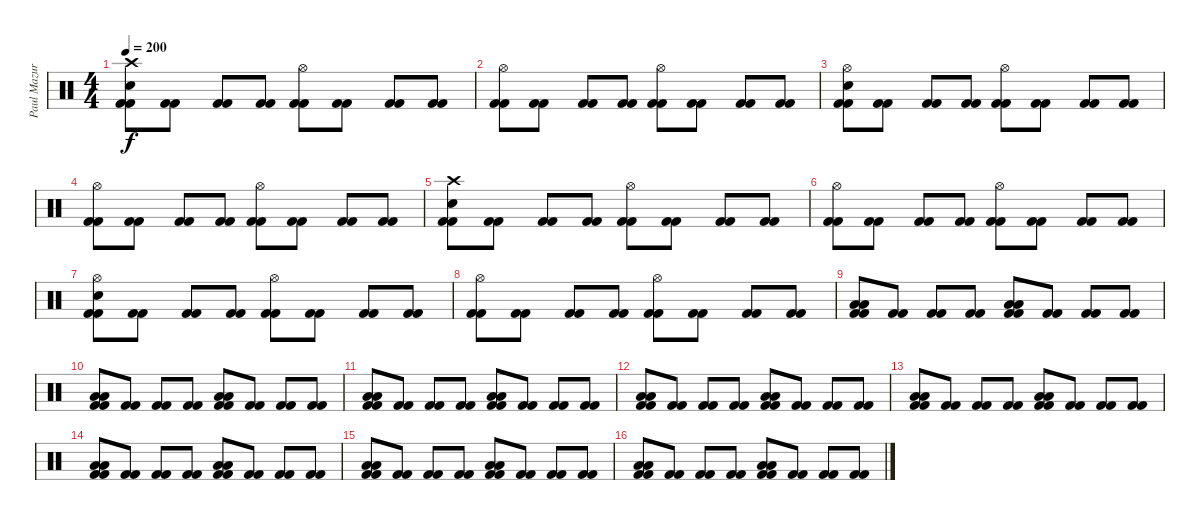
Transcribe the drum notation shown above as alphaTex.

\track ("Paul Mazurkiewicz" "Paul Mazur") {instrument percussion}
\staff {score}
\articulation defaults
\ts (4 4)
\tempo 200
\clef neutral
\ks c
("Crash high (hit)" "Electric Snare (hit)" "Kick (hit) 2" "Kick (hit) 2").8{dy f} ("Kick (hit) 2" "Kick (hit) 2").8 ("Kick (hit) 2" "Kick (hit) 2").8 ("Kick (hit) 2" "Kick (hit) 2").8 ("Hi-Hat (open)" "Kick (hit) 2" "Kick (hit) 2").8 ("Kick (hit) 2" "Kick (hit) 2").8 ("Kick (hit) 2" "Kick (hit) 2").8 ("Kick (hit) 2" "Kick (hit) 2").8 |
("Hi-Hat (open)" "Kick (hit) 2" "Kick (hit) 2").8 ("Kick (hit) 2" "Kick (hit) 2").8 ("Kick (hit) 2" "Kick (hit) 2").8 ("Kick (hit) 2" "Kick (hit) 2").8 ("Hi-Hat (open)" "Kick (hit) 2" "Kick (hit) 2").8 ("Kick (hit) 2" "Kick (hit) 2").8 ("Kick (hit) 2" "Kick (hit) 2").8 ("Kick (hit) 2" "Kick (hit) 2").8 |
("Hi-Hat (open)" "Electric Snare (hit)" "Kick (hit) 2" "Kick (hit) 2").8 ("Kick (hit) 2" "Kick (hit) 2").8 ("Kick (hit) 2" "Kick (hit) 2").8 ("Kick (hit) 2" "Kick (hit) 2").8 ("Hi-Hat (open)" "Kick (hit) 2" "Kick (hit) 2").8 ("Kick (hit) 2" "Kick (hit) 2").8 ("Kick (hit) 2" "Kick (hit) 2").8 ("Kick (hit) 2" "Kick (hit) 2").8 |
("Hi-Hat (open)" "Kick (hit) 2" "Kick (hit) 2").8 ("Kick (hit) 2" "Kick (hit) 2").8 ("Kick (hit) 2" "Kick (hit) 2").8 ("Kick (hit) 2" "Kick (hit) 2").8 ("Hi-Hat (open)" "Kick (hit) 2" "Kick (hit) 2").8 ("Kick (hit) 2" "Kick (hit) 2").8 ("Kick (hit) 2" "Kick (hit) 2").8 ("Kick (hit) 2" "Kick (hit) 2").8 |
("Crash high (hit)" "Electric Snare (hit)" "Kick (hit) 2" "Kick (hit) 2").8 ("Kick (hit) 2" "Kick (hit) 2").8 ("Kick (hit) 2" "Kick (hit) 2").8 ("Kick (hit) 2" "Kick (hit) 2").8 ("Hi-Hat (open)" "Kick (hit) 2" "Kick (hit) 2").8 ("Kick (hit) 2" "Kick (hit) 2").8 ("Kick (hit) 2" "Kick (hit) 2").8 ("Kick (hit) 2" "Kick (hit) 2").8 |
("Hi-Hat (open)" "Kick (hit) 2" "Kick (hit) 2").8 ("Kick (hit) 2" "Kick (hit) 2").8 ("Kick (hit) 2" "Kick (hit) 2").8 ("Kick (hit) 2" "Kick (hit) 2").8 ("Hi-Hat (open)" "Kick (hit) 2" "Kick (hit) 2").8 ("Kick (hit) 2" "Kick (hit) 2").8 ("Kick (hit) 2" "Kick (hit) 2").8 ("Kick (hit) 2" "Kick (hit) 2").8 |
("Hi-Hat (open)" "Electric Snare (hit)" "Kick (hit) 2" "Kick (hit) 2").8 ("Kick (hit) 2" "Kick (hit) 2").8 ("Kick (hit) 2" "Kick (hit) 2").8 ("Kick (hit) 2" "Kick (hit) 2").8 ("Hi-Hat (open)" "Kick (hit) 2" "Kick (hit) 2").8 ("Kick (hit) 2" "Kick (hit) 2").8 ("Kick (hit) 2" "Kick (hit) 2").8 ("Kick (hit) 2" "Kick (hit) 2").8 |
("Hi-Hat (open)" "Kick (hit) 2" "Kick (hit) 2").8 ("Kick (hit) 2" "Kick (hit) 2").8 ("Kick (hit) 2" "Kick (hit) 2").8 ("Kick (hit) 2" "Kick (hit) 2").8 ("Hi-Hat (open)" "Kick (hit) 2" "Kick (hit) 2").8 ("Kick (hit) 2" "Kick (hit) 2").8 ("Kick (hit) 2" "Kick (hit) 2").8 ("Kick (hit) 2" "Kick (hit) 2").8 |
("Low Floor Tom (hit)" "Low Floor Tom (hit)" "Kick (hit) 2" "Kick (hit) 2").8 ("Kick (hit) 2" "Kick (hit) 2").8 ("Kick (hit) 2" "Kick (hit) 2").8 ("Kick (hit) 2" "Kick (hit) 2").8 ("Low Floor Tom (hit)" "Low Floor Tom (hit)" "Kick (hit) 2" "Kick (hit) 2").8 ("Kick (hit) 2" "Kick (hit) 2").8 ("Kick (hit) 2" "Kick (hit) 2").8 ("Kick (hit) 2" "Kick (hit) 2").8 |
("Low Floor Tom (hit)" "Low Floor Tom (hit)" "Kick (hit) 2" "Kick (hit) 2").8 ("Kick (hit) 2" "Kick (hit) 2").8 ("Kick (hit) 2" "Kick (hit) 2").8 ("Kick (hit) 2" "Kick (hit) 2").8 ("Low Floor Tom (hit)" "Low Floor Tom (hit)" "Kick (hit) 2" "Kick (hit) 2").8 ("Kick (hit) 2" "Kick (hit) 2").8 ("Kick (hit) 2" "Kick (hit) 2").8 ("Kick (hit) 2" "Kick (hit) 2").8 |
("Low Floor Tom (hit)" "Low Floor Tom (hit)" "Kick (hit) 2" "Kick (hit) 2").8 ("Kick (hit) 2" "Kick (hit) 2").8 ("Kick (hit) 2" "Kick (hit) 2").8 ("Kick (hit) 2" "Kick (hit) 2").8 ("Low Floor Tom (hit)" "Low Floor Tom (hit)" "Kick (hit) 2" "Kick (hit) 2").8 ("Kick (hit) 2" "Kick (hit) 2").8 ("Kick (hit) 2" "Kick (hit) 2").8 ("Kick (hit) 2" "Kick (hit) 2").8 |
("Low Floor Tom (hit)" "Low Floor Tom (hit)" "Kick (hit) 2" "Kick (hit) 2").8 ("Kick (hit) 2" "Kick (hit) 2").8 ("Kick (hit) 2" "Kick (hit) 2").8 ("Kick (hit) 2" "Kick (hit) 2").8 ("Low Floor Tom (hit)" "Low Floor Tom (hit)" "Kick (hit) 2" "Kick (hit) 2").8 ("Kick (hit) 2" "Kick (hit) 2").8 ("Kick (hit) 2" "Kick (hit) 2").8 ("Kick (hit) 2" "Kick (hit) 2").8 |
("Low Floor Tom (hit)" "Low Floor Tom (hit)" "Kick (hit) 2" "Kick (hit) 2").8 ("Kick (hit) 2" "Kick (hit) 2").8 ("Kick (hit) 2" "Kick (hit) 2").8 ("Kick (hit) 2" "Kick (hit) 2").8 ("Low Floor Tom (hit)" "Low Floor Tom (hit)" "Kick (hit) 2" "Kick (hit) 2").8 ("Kick (hit) 2" "Kick (hit) 2").8 ("Kick (hit) 2" "Kick (hit) 2").8 ("Kick (hit) 2" "Kick (hit) 2").8 |
("Low Floor Tom (hit)" "Low Floor Tom (hit)" "Kick (hit) 2" "Kick (hit) 2").8 ("Kick (hit) 2" "Kick (hit) 2").8 ("Kick (hit) 2" "Kick (hit) 2").8 ("Kick (hit) 2" "Kick (hit) 2").8 ("Low Floor Tom (hit)" "Low Floor Tom (hit)" "Kick (hit) 2" "Kick (hit) 2").8 ("Kick (hit) 2" "Kick (hit) 2").8 ("Kick (hit) 2" "Kick (hit) 2").8 ("Kick (hit) 2" "Kick (hit) 2").8 |
("Low Floor Tom (hit)" "Low Floor Tom (hit)" "Kick (hit) 2" "Kick (hit) 2").8 ("Kick (hit) 2" "Kick (hit) 2").8 ("Kick (hit) 2" "Kick (hit) 2").8 ("Kick (hit) 2" "Kick (hit) 2").8 ("Low Floor Tom (hit)" "Low Floor Tom (hit)" "Kick (hit) 2" "Kick (hit) 2").8 ("Kick (hit) 2" "Kick (hit) 2").8 ("Kick (hit) 2" "Kick (hit) 2").8 ("Kick (hit) 2" "Kick (hit) 2").8 |
("Low Floor Tom (hit)" "Low Floor Tom (hit)" "Kick (hit) 2" "Kick (hit) 2").8 ("Kick (hit) 2" "Kick (hit) 2").8 ("Kick (hit) 2" "Kick (hit) 2").8 ("Kick (hit) 2" "Kick (hit) 2").8 ("Low Floor Tom (hit)" "Low Floor Tom (hit)" "Kick (hit) 2" "Kick (hit) 2").8 ("Kick (hit) 2" "Kick (hit) 2").8 ("Kick (hit) 2" "Kick (hit) 2").8 ("Kick (hit) 2" "Kick (hit) 2").8
